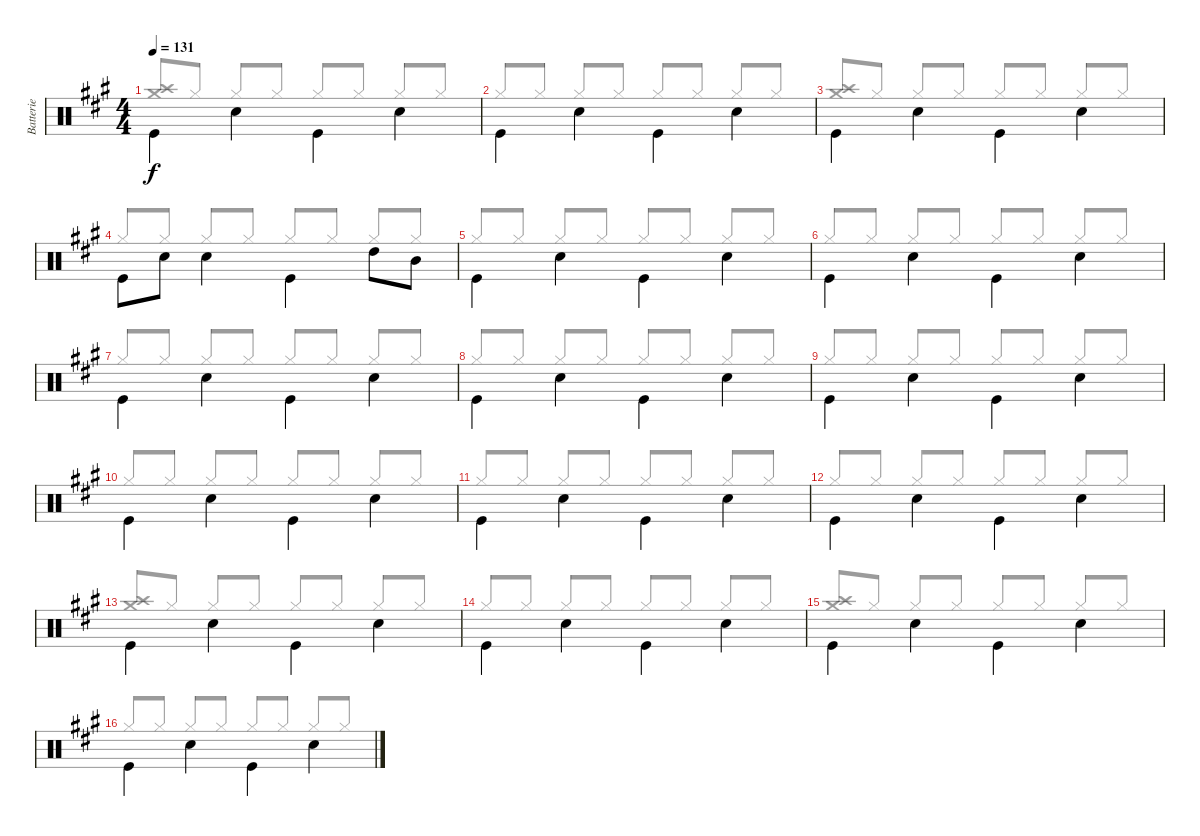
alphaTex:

\track ("Batterie" "Batterie") {instrument percussion}
\staff {score}
\articulation defaults
\voice
\ts (4 4)
\tempo 131
\clef neutral
\ks a "Kick (hit)".4{dy f beam Down} "Snare (hit) 2".4{beam Down} "Kick (hit)".4{beam Down} "Snare (hit) 2".4{beam Down}
|
"Kick (hit)".4{beam Down} "Snare (hit) 2".4{beam Down} "Kick (hit)".4{beam Down} "Snare (hit) 2".4{beam Down} |
"Kick (hit)".4{beam Down} "Snare (hit) 2".4{beam Down} "Kick (hit)".4{beam Down} "Snare (hit) 2".4{beam Down} |
"Kick (hit)".8{beam Down} "Snare (hit) 2".8{beam Down} "Snare (hit) 2".4{beam Down} "Kick (hit)".4{beam Down} "High Tom (hit)".8{beam Down} "Mid Tom (hit)".8{beam Down} |
"Kick (hit)".4{beam Down} "Snare (hit) 2".4{beam Down} "Kick (hit)".4{beam Down} "Snare (hit) 2".4{beam Down} |
"Kick (hit)".4{beam Down} "Snare (hit) 2".4{beam Down} "Kick (hit)".4{beam Down} "Snare (hit) 2".4{beam Down} |
"Kick (hit)".4{beam Down} "Snare (hit) 2".4{beam Down} "Kick (hit)".4{beam Down} "Snare (hit) 2".4{beam Down} |
"Kick (hit)".4{beam Down} "Snare (hit) 2".4{beam Down} "Kick (hit)".4{beam Down} "Snare (hit) 2".4{beam Down} |
"Kick (hit)".4{beam Down} "Snare (hit) 2".4{beam Down} "Kick (hit)".4{beam Down} "Snare (hit) 2".4{beam Down} |
"Kick (hit)".4{beam Down} "Snare (hit) 2".4{beam Down} "Kick (hit)".4{beam Down} "Snare (hit) 2".4{beam Down} |
"Kick (hit)".4{beam Down} "Snare (hit) 2".4{beam Down} "Kick (hit)".4{beam Down} "Snare (hit) 2".4{beam Down} |
"Kick (hit)".4{beam Down} "Snare (hit) 2".4{beam Down} "Kick (hit)".4{beam Down} "Snare (hit) 2".4{beam Down} |
"Kick (hit)".4{beam Down} "Snare (hit) 2".4{beam Down} "Kick (hit)".4{beam Down} "Snare (hit) 2".4{beam Down} |
"Kick (hit)".4{beam Down} "Snare (hit) 2".4{beam Down} "Kick (hit)".4{beam Down} "Snare (hit) 2".4{beam Down} |
"Kick (hit)".4{beam Down} "Snare (hit) 2".4{beam Down} "Kick (hit)".4{beam Down} "Snare (hit) 2".4{beam Down} |
"Kick (hit)".4{beam Down} "Snare (hit) 2".4{beam Down} "Kick (hit)".4{beam Down} "Snare (hit) 2".4{beam Down}
\voice
\clef neutral
\ottava regular
\simile none
\ks a
("Crash medium (hit)" "Crash high (hit)").8{dy f beam Up} "Hi-Hat (closed)".8{beam Up} "Hi-Hat (closed)".8{beam Up} "Hi-Hat (closed)".8{beam Up} "Hi-Hat (closed)".8{beam Up} "Hi-Hat (closed)".8{beam Up} "Hi-Hat (closed)".8{beam Up} "Hi-Hat (closed)".8{beam Up} |
"Hi-Hat (closed)".8{beam Up} "Hi-Hat (closed)".8{beam Up} "Hi-Hat (closed)".8{beam Up} "Hi-Hat (closed)".8{beam Up} "Hi-Hat (closed)".8{beam Up} "Hi-Hat (closed)".8{beam Up} "Hi-Hat (closed)".8{beam Up} "Hi-Hat (closed)".8{beam Up} |
("Crash medium (hit)" "Crash high (hit)").8{beam Up} "Hi-Hat (closed)".8{beam Up} "Hi-Hat (closed)".8{beam Up} "Hi-Hat (closed)".8{beam Up} "Hi-Hat (closed)".8{beam Up} "Hi-Hat (closed)".8{beam Up} "Hi-Hat (closed)".8{beam Up} "Hi-Hat (closed)".8{beam Up} |
"Hi-Hat (closed)".8{beam Up} "Hi-Hat (closed)".8{beam Up} "Hi-Hat (closed)".8{beam Up} "Hi-Hat (closed)".8{beam Up} "Hi-Hat (closed)".8{beam Up} "Hi-Hat (closed)".8{beam Up} "Hi-Hat (closed)".8{beam Up} "Hi-Hat (closed)".8{beam Up} |
"Hi-Hat (closed)".8{beam Up} "Hi-Hat (closed)".8{beam Up} "Hi-Hat (closed)".8{beam Up} "Hi-Hat (closed)".8{beam Up} "Hi-Hat (closed)".8{beam Up} "Hi-Hat (closed)".8{beam Up} "Hi-Hat (closed)".8{beam Up} "Hi-Hat (closed)".8{beam Up} |
"Hi-Hat (closed)".8{beam Up} "Hi-Hat (closed)".8{beam Up} "Hi-Hat (closed)".8{beam Up} "Hi-Hat (closed)".8{beam Up} "Hi-Hat (closed)".8{beam Up} "Hi-Hat (closed)".8{beam Up} "Hi-Hat (closed)".8{beam Up} "Hi-Hat (closed)".8{beam Up} |
"Hi-Hat (closed)".8{beam Up} "Hi-Hat (closed)".8{beam Up} "Hi-Hat (closed)".8{beam Up} "Hi-Hat (closed)".8{beam Up} "Hi-Hat (closed)".8{beam Up} "Hi-Hat (closed)".8{beam Up} "Hi-Hat (closed)".8{beam Up} "Hi-Hat (closed)".8{beam Up} |
"Hi-Hat (closed)".8{beam Up} "Hi-Hat (closed)".8{beam Up} "Hi-Hat (closed)".8{beam Up} "Hi-Hat (closed)".8{beam Up} "Hi-Hat (closed)".8{beam Up} "Hi-Hat (closed)".8{beam Up} "Hi-Hat (closed)".8{beam Up} "Hi-Hat (closed)".8{beam Up} |
"Hi-Hat (closed)".8{beam Up} "Hi-Hat (closed)".8{beam Up} "Hi-Hat (closed)".8{beam Up} "Hi-Hat (closed)".8{beam Up} "Hi-Hat (closed)".8{beam Up} "Hi-Hat (closed)".8{beam Up} "Hi-Hat (closed)".8{beam Up} "Hi-Hat (closed)".8{beam Up} |
"Hi-Hat (closed)".8{beam Up} "Hi-Hat (closed)".8{beam Up} "Hi-Hat (closed)".8{beam Up} "Hi-Hat (closed)".8{beam Up} "Hi-Hat (closed)".8{beam Up} "Hi-Hat (closed)".8{beam Up} "Hi-Hat (closed)".8{beam Up} "Hi-Hat (closed)".8{beam Up} |
"Hi-Hat (closed)".8{beam Up} "Hi-Hat (closed)".8{beam Up} "Hi-Hat (closed)".8{beam Up} "Hi-Hat (closed)".8{beam Up} "Hi-Hat (closed)".8{beam Up} "Hi-Hat (closed)".8{beam Up} "Hi-Hat (closed)".8{beam Up} "Hi-Hat (closed)".8{beam Up} |
"Hi-Hat (closed)".8{beam Up} "Hi-Hat (closed)".8{beam Up} "Hi-Hat (closed)".8{beam Up} "Hi-Hat (closed)".8{beam Up} "Hi-Hat (closed)".8{beam Up} "Hi-Hat (closed)".8{beam Up} "Hi-Hat (closed)".8{beam Up} "Hi-Hat (closed)".8{beam Up} |
("Crash medium (hit)" "Crash high (hit)").8{beam Up} "Hi-Hat (closed)".8{beam Up} "Hi-Hat (closed)".8{beam Up} "Hi-Hat (closed)".8{beam Up} "Hi-Hat (closed)".8{beam Up} "Hi-Hat (closed)".8{beam Up} "Hi-Hat (closed)".8{beam Up} "Hi-Hat (closed)".8{beam Up} |
"Hi-Hat (closed)".8{beam Up} "Hi-Hat (closed)".8{beam Up} "Hi-Hat (closed)".8{beam Up} "Hi-Hat (closed)".8{beam Up} "Hi-Hat (closed)".8{beam Up} "Hi-Hat (closed)".8{beam Up} "Hi-Hat (closed)".8{beam Up} "Hi-Hat (closed)".8{beam Up} |
("Crash medium (hit)" "Crash high (hit)").8{beam Up} "Hi-Hat (closed)".8{beam Up} "Hi-Hat (closed)".8{beam Up} "Hi-Hat (closed)".8{beam Up} "Hi-Hat (closed)".8{beam Up} "Hi-Hat (closed)".8{beam Up} "Hi-Hat (closed)".8{beam Up} "Hi-Hat (closed)".8{beam Up} |
"Hi-Hat (closed)".8{beam Up} "Hi-Hat (closed)".8{beam Up} "Hi-Hat (closed)".8{beam Up} "Hi-Hat (closed)".8{beam Up} "Hi-Hat (closed)".8{beam Up} "Hi-Hat (closed)".8{beam Up} "Hi-Hat (closed)".8{beam Up} "Hi-Hat (closed)".8{beam Up}
